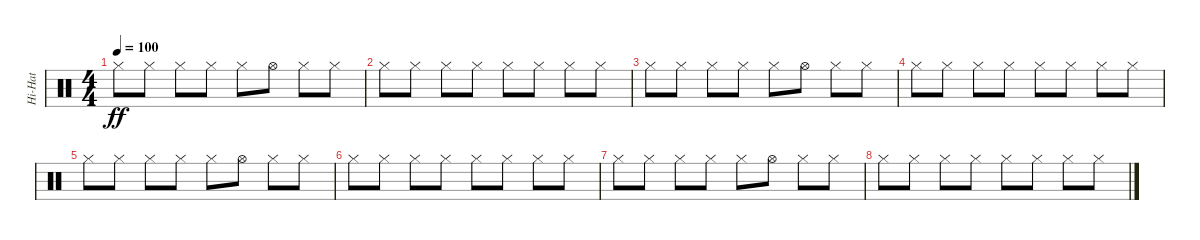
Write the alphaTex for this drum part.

\track ("Hi-Hat" "Hi-Hat") {instrument percussion}
\staff {score}
\articulation defaults
\ts (4 4)
\tempo 100
\clef neutral
\ks c "Hi-Hat (closed)".8{dy ff} "Hi-Hat (closed)".8 "Hi-Hat (closed)".8 "Hi-Hat (closed)".8 "Hi-Hat (closed)".8 "Hi-Hat (open)".8 "Hi-Hat (closed)".8 "Hi-Hat (closed)".8
|
"Hi-Hat (closed)".8 "Hi-Hat (closed)".8 "Hi-Hat (closed)".8 "Hi-Hat (closed)".8 "Hi-Hat (closed)".8 "Hi-Hat (closed)".8 "Hi-Hat (closed)".8 "Hi-Hat (closed)".8 |
"Hi-Hat (closed)".8 "Hi-Hat (closed)".8 "Hi-Hat (closed)".8 "Hi-Hat (closed)".8 "Hi-Hat (closed)".8 "Hi-Hat (open)".8 "Hi-Hat (closed)".8 "Hi-Hat (closed)".8 |
"Hi-Hat (closed)".8 "Hi-Hat (closed)".8 "Hi-Hat (closed)".8 "Hi-Hat (closed)".8 "Hi-Hat (closed)".8 "Hi-Hat (closed)".8 "Hi-Hat (closed)".8 "Hi-Hat (closed)".8 |
"Hi-Hat (closed)".8 "Hi-Hat (closed)".8 "Hi-Hat (closed)".8 "Hi-Hat (closed)".8 "Hi-Hat (closed)".8 "Hi-Hat (open)".8 "Hi-Hat (closed)".8 "Hi-Hat (closed)".8 |
"Hi-Hat (closed)".8 "Hi-Hat (closed)".8 "Hi-Hat (closed)".8 "Hi-Hat (closed)".8 "Hi-Hat (closed)".8 "Hi-Hat (closed)".8 "Hi-Hat (closed)".8 "Hi-Hat (closed)".8 |
"Hi-Hat (closed)".8 "Hi-Hat (closed)".8 "Hi-Hat (closed)".8 "Hi-Hat (closed)".8 "Hi-Hat (closed)".8 "Hi-Hat (open)".8 "Hi-Hat (closed)".8 "Hi-Hat (closed)".8 |
"Hi-Hat (closed)".8 "Hi-Hat (closed)".8 "Hi-Hat (closed)".8 "Hi-Hat (closed)".8 "Hi-Hat (closed)".8 "Hi-Hat (closed)".8 "Hi-Hat (closed)".8 "Hi-Hat (closed)".8
